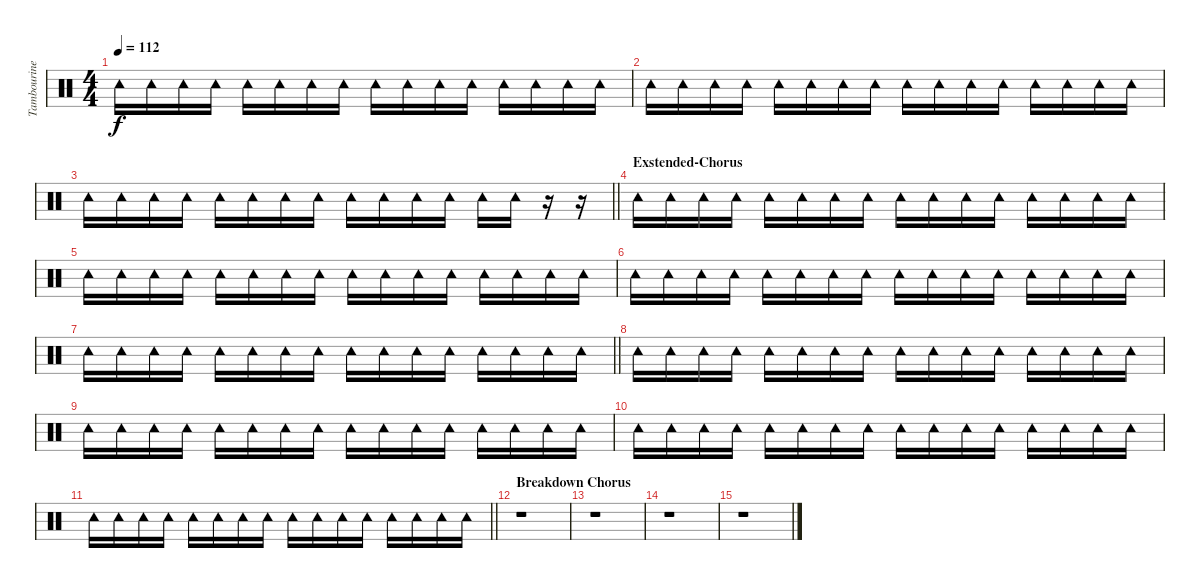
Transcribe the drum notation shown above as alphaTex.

\track ("Tambourine" "Tambourine") {instrument percussion}
\staff {score}
\articulation defaults
\ts (4 4)
\tempo 112
\clef neutral
\ks c "Tambourine (hit)".16{dy f} "Tambourine (hit)".16 "Tambourine (hit)".16 "Tambourine (hit)".16 "Tambourine (hit)".16 "Tambourine (hit)".16 "Tambourine (hit)".16 "Tambourine (hit)".16 "Tambourine (hit)".16 "Tambourine (hit)".16 "Tambourine (hit)".16 "Tambourine (hit)".16 "Tambourine (hit)".16 "Tambourine (hit)".16 "Tambourine (hit)".16 "Tambourine (hit)".16
|
"Tambourine (hit)".16 "Tambourine (hit)".16 "Tambourine (hit)".16 "Tambourine (hit)".16 "Tambourine (hit)".16 "Tambourine (hit)".16 "Tambourine (hit)".16 "Tambourine (hit)".16 "Tambourine (hit)".16 "Tambourine (hit)".16 "Tambourine (hit)".16 "Tambourine (hit)".16 "Tambourine (hit)".16 "Tambourine (hit)".16 "Tambourine (hit)".16 "Tambourine (hit)".16 |
\barLineRight lightlight "Tambourine (hit)".16 "Tambourine (hit)".16 "Tambourine (hit)".16 "Tambourine (hit)".16 "Tambourine (hit)".16 "Tambourine (hit)".16 "Tambourine (hit)".16 "Tambourine (hit)".16 "Tambourine (hit)".16 "Tambourine (hit)".16 "Tambourine (hit)".16 "Tambourine (hit)".16 "Tambourine (hit)".16 "Tambourine (hit)".16
r.16 r.16 |
\section ("" "Exstended-Chorus")
"Tambourine (hit)".16 "Tambourine (hit)".16 "Tambourine (hit)".16 "Tambourine (hit)".16 "Tambourine (hit)".16 "Tambourine (hit)".16 "Tambourine (hit)".16 "Tambourine (hit)".16 "Tambourine (hit)".16 "Tambourine (hit)".16 "Tambourine (hit)".16 "Tambourine (hit)".16 "Tambourine (hit)".16 "Tambourine (hit)".16 "Tambourine (hit)".16 "Tambourine (hit)".16 |
"Tambourine (hit)".16 "Tambourine (hit)".16 "Tambourine (hit)".16 "Tambourine (hit)".16 "Tambourine (hit)".16 "Tambourine (hit)".16 "Tambourine (hit)".16 "Tambourine (hit)".16 "Tambourine (hit)".16 "Tambourine (hit)".16 "Tambourine (hit)".16 "Tambourine (hit)".16 "Tambourine (hit)".16 "Tambourine (hit)".16 "Tambourine (hit)".16 "Tambourine (hit)".16 |
"Tambourine (hit)".16 "Tambourine (hit)".16 "Tambourine (hit)".16 "Tambourine (hit)".16 "Tambourine (hit)".16 "Tambourine (hit)".16 "Tambourine (hit)".16 "Tambourine (hit)".16 "Tambourine (hit)".16 "Tambourine (hit)".16 "Tambourine (hit)".16 "Tambourine (hit)".16 "Tambourine (hit)".16 "Tambourine (hit)".16 "Tambourine (hit)".16 "Tambourine (hit)".16 |
\barLineRight lightlight "Tambourine (hit)".16 "Tambourine (hit)".16 "Tambourine (hit)".16 "Tambourine (hit)".16 "Tambourine (hit)".16 "Tambourine (hit)".16 "Tambourine (hit)".16 "Tambourine (hit)".16 "Tambourine (hit)".16 "Tambourine (hit)".16 "Tambourine (hit)".16 "Tambourine (hit)".16 "Tambourine (hit)".16 "Tambourine (hit)".16 "Tambourine (hit)".16 "Tambourine (hit)".16
|
"Tambourine (hit)".16 "Tambourine (hit)".16 "Tambourine (hit)".16 "Tambourine (hit)".16 "Tambourine (hit)".16 "Tambourine (hit)".16 "Tambourine (hit)".16 "Tambourine (hit)".16 "Tambourine (hit)".16 "Tambourine (hit)".16 "Tambourine (hit)".16 "Tambourine (hit)".16 "Tambourine (hit)".16 "Tambourine (hit)".16 "Tambourine (hit)".16 "Tambourine (hit)".16 |
"Tambourine (hit)".16 "Tambourine (hit)".16 "Tambourine (hit)".16 "Tambourine (hit)".16 "Tambourine (hit)".16 "Tambourine (hit)".16 "Tambourine (hit)".16 "Tambourine (hit)".16 "Tambourine (hit)".16 "Tambourine (hit)".16 "Tambourine (hit)".16 "Tambourine (hit)".16 "Tambourine (hit)".16 "Tambourine (hit)".16 "Tambourine (hit)".16 "Tambourine (hit)".16 |
"Tambourine (hit)".16 "Tambourine (hit)".16 "Tambourine (hit)".16 "Tambourine (hit)".16 "Tambourine (hit)".16 "Tambourine (hit)".16 "Tambourine (hit)".16 "Tambourine (hit)".16 "Tambourine (hit)".16 "Tambourine (hit)".16 "Tambourine (hit)".16 "Tambourine (hit)".16 "Tambourine (hit)".16 "Tambourine (hit)".16 "Tambourine (hit)".16 "Tambourine (hit)".16 |
\barLineRight lightlight "Tambourine (hit)".16 "Tambourine (hit)".16 "Tambourine (hit)".16 "Tambourine (hit)".16 "Tambourine (hit)".16 "Tambourine (hit)".16 "Tambourine (hit)".16 "Tambourine (hit)".16 "Tambourine (hit)".16 "Tambourine (hit)".16 "Tambourine (hit)".16 "Tambourine (hit)".16 "Tambourine (hit)".16 "Tambourine (hit)".16 "Tambourine (hit)".16 "Tambourine (hit)".16
|
\section ("" "Breakdown Chorus")
r.1 |
r.1 |
r.1 |
r.1
